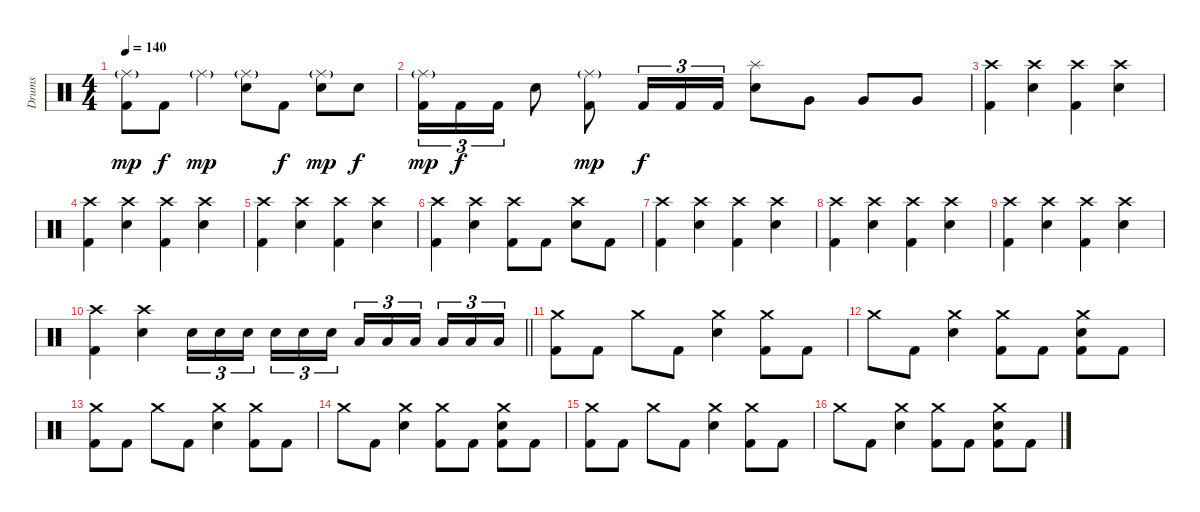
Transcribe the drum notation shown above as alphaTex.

\track ("Drums" "Drums") {instrument percussion}
\staff {score}
\articulation defaults
\ts (4 4)
\tempo 140
\clef neutral
\ks c
("Ride (middle)"{g} "Kick (hit) 2").8{dy mp} "Kick (hit) 2".8{dy f} "Ride (middle)"{g}.4{dy mp} ("Ride (middle)"{g} "Electric Snare (hit)").8 "Kick (hit) 2".8{dy f} ("Ride (middle)"{g} "Electric Snare (hit)").8{dy mp} "Electric Snare (hit)".8{dy f} |
("Ride (middle)"{g} "Kick (hit) 2").16{tu (3 2) dy mp} "Kick (hit) 2".16{tu (3 2) dy f} "Kick (hit) 2".16{tu (3 2)} "Electric Snare (hit)".8 ("Ride (middle)"{g} "Kick (hit) 2").8{dy mp} "Kick (hit) 2".16{tu (3 2) dy f} "Kick (hit) 2".16{tu (3 2)} "Kick (hit) 2".16{tu (3 2)} ("Splash (hit)" "Electric Snare (hit)").8 "Very Low Tom (hit)".8 "Very Low Tom (hit)".8 "Very Low Tom (hit)".8 |
("Crash high (hit)" "Kick (hit) 2").4 ("Crash high (hit)" "Electric Snare (hit)").4 ("Crash high (hit)" "Kick (hit) 2").4 ("Crash high (hit)" "Electric Snare (hit)").4 |
("Crash high (hit)" "Kick (hit) 2").4 ("Crash high (hit)" "Electric Snare (hit)").4 ("Crash high (hit)" "Kick (hit) 2").4 ("Crash high (hit)" "Electric Snare (hit)").4 |
("Crash high (hit)" "Kick (hit) 2").4 ("Crash high (hit)" "Electric Snare (hit)").4 ("Crash high (hit)" "Kick (hit) 2").4 ("Crash high (hit)" "Electric Snare (hit)").4 |
("Crash high (hit)" "Kick (hit) 2").4 ("Crash high (hit)" "Electric Snare (hit)").4 ("Crash high (hit)" "Kick (hit) 2").8 "Kick (hit) 2".8 ("Crash high (hit)" "Electric Snare (hit)").8 "Kick (hit) 2".8 |
("Crash high (hit)" "Kick (hit) 2").4 ("Crash high (hit)" "Electric Snare (hit)").4 ("Crash high (hit)" "Kick (hit) 2").4 ("Crash high (hit)" "Electric Snare (hit)").4 |
("Crash high (hit)" "Kick (hit) 2").4 ("Crash high (hit)" "Electric Snare (hit)").4 ("Crash high (hit)" "Kick (hit) 2").4 ("Crash high (hit)" "Electric Snare (hit)").4 |
("Crash high (hit)" "Kick (hit) 2").4 ("Crash high (hit)" "Electric Snare (hit)").4 ("Crash high (hit)" "Kick (hit) 2").4 ("Crash high (hit)" "Electric Snare (hit)").4 |
\barLineRight lightlight
("Crash high (hit)" "Kick (hit) 2").4 ("Crash high (hit)" "Electric Snare (hit)").4 "Electric Snare (hit)".16{tu (3 2)} "Electric Snare (hit)".16{tu (3 2)} "Electric Snare (hit)".16{tu (3 2)} "Electric Snare (hit)".16{tu (3 2)} "Electric Snare (hit)".16{tu (3 2)} "Electric Snare (hit)".16{tu (3 2)} "Low Tom (hit)".16{tu (3 2)} "Low Tom (hit)".16{tu (3 2)} "Low Tom (hit)".16{tu (3 2)} "Low Tom (hit)".16{tu (3 2)} "Low Tom (hit)".16{tu (3 2)} "Low Tom (hit)".16{tu (3 2)} |
\section ("" "")
("Crash medium (hit)" "Kick (hit) 2").8 "Kick (hit) 2".8 "Crash medium (hit)".8 "Kick (hit) 2".8 ("Crash medium (hit)" "Electric Snare (hit)").4 ("Crash medium (hit)" "Kick (hit) 2").8 "Kick (hit) 2".8 |
"Crash medium (hit)".8 "Kick (hit) 2".8 ("Crash medium (hit)" "Electric Snare (hit)").4 ("Crash medium (hit)" "Kick (hit) 2").8 "Kick (hit) 2".8 ("Crash medium (hit)" "Electric Snare (hit)" "Kick (hit) 2").8 "Kick (hit) 2".8 |
("Crash medium (hit)" "Kick (hit) 2").8 "Kick (hit) 2".8 "Crash medium (hit)".8 "Kick (hit) 2".8 ("Crash medium (hit)" "Electric Snare (hit)").4 ("Crash medium (hit)" "Kick (hit) 2").8 "Kick (hit) 2".8 |
"Crash medium (hit)".8 "Kick (hit) 2".8 ("Crash medium (hit)" "Electric Snare (hit)").4 ("Crash medium (hit)" "Kick (hit) 2").8 "Kick (hit) 2".8 ("Crash medium (hit)" "Electric Snare (hit)" "Kick (hit) 2").8 "Kick (hit) 2".8 |
("Crash medium (hit)" "Kick (hit) 2").8 "Kick (hit) 2".8 "Crash medium (hit)".8 "Kick (hit) 2".8 ("Crash medium (hit)" "Electric Snare (hit)").4 ("Crash medium (hit)" "Kick (hit) 2").8 "Kick (hit) 2".8 |
"Crash medium (hit)".8 "Kick (hit) 2".8 ("Crash medium (hit)" "Electric Snare (hit)").4 ("Crash medium (hit)" "Kick (hit) 2").8 "Kick (hit) 2".8 ("Crash medium (hit)" "Electric Snare (hit)" "Kick (hit) 2").8 "Kick (hit) 2".8
